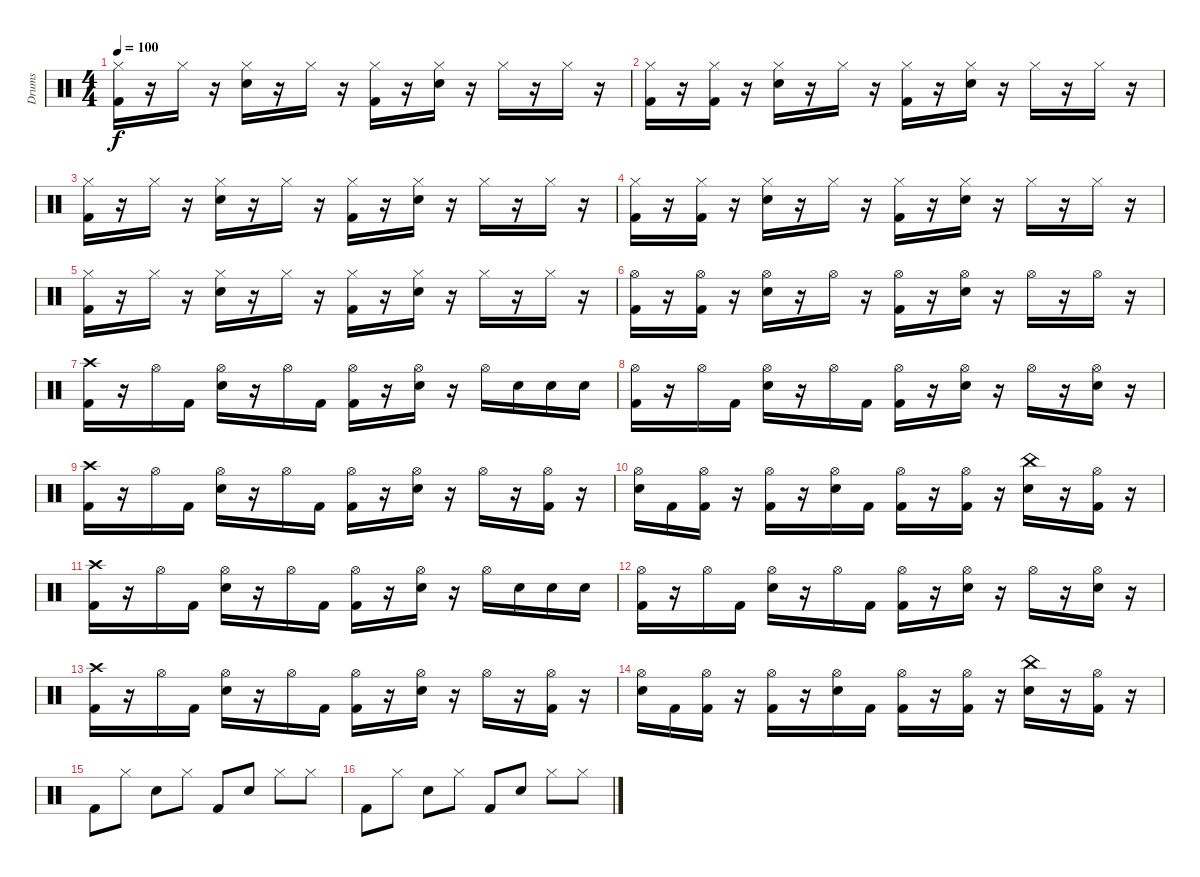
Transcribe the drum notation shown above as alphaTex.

\track ("Drums" "Drums") {instrument percussion}
\staff {score}
\articulation defaults
\ts (4 4)
\tempo 100
\clef neutral
\ks c
("Hi-Hat (closed)" "Kick (hit) 2").16{dy f} r.16 "Hi-Hat (closed)".16 r.16 ("Hi-Hat (closed)" "Hand Clap (hit)").16 r.16 "Hi-Hat (closed)".16 r.16 ("Hi-Hat (closed)" "Kick (hit) 2").16 r.16 ("Hi-Hat (closed)" "Hand Clap (hit)").16 r.16 "Hi-Hat (closed)".16 r.16 "Hi-Hat (closed)".16 r.16 |
("Hi-Hat (closed)" "Kick (hit) 2").16 r.16 ("Hi-Hat (closed)" "Kick (hit) 2").16 r.16 ("Hi-Hat (closed)" "Hand Clap (hit)").16 r.16 "Hi-Hat (closed)".16 r.16 ("Hi-Hat (closed)" "Kick (hit) 2").16 r.16 ("Hi-Hat (closed)" "Hand Clap (hit)").16 r.16 "Hi-Hat (closed)".16 r.16 "Hi-Hat (closed)".16 r.16 |
("Hi-Hat (closed)" "Kick (hit) 2").16 r.16 "Hi-Hat (closed)".16 r.16 ("Hi-Hat (closed)" "Hand Clap (hit)").16 r.16 "Hi-Hat (closed)".16 r.16 ("Hi-Hat (closed)" "Kick (hit) 2").16 r.16 ("Hi-Hat (closed)" "Hand Clap (hit)").16 r.16 "Hi-Hat (closed)".16 r.16 "Hi-Hat (closed)".16 r.16 |
("Hi-Hat (closed)" "Kick (hit) 2").16 r.16 ("Hi-Hat (closed)" "Kick (hit) 2").16 r.16 ("Hi-Hat (closed)" "Hand Clap (hit)").16 r.16 "Hi-Hat (closed)".16 r.16 ("Hi-Hat (closed)" "Kick (hit) 2").16 r.16 ("Hi-Hat (closed)" "Hand Clap (hit)").16 r.16 "Hi-Hat (closed)".16 r.16 "Hi-Hat (closed)".16 r.16 |
("Hi-Hat (closed)" "Kick (hit) 2").16 r.16 "Hi-Hat (closed)".16 r.16 ("Hi-Hat (closed)" "Hand Clap (hit)").16 r.16 "Hi-Hat (closed)".16 r.16 ("Hi-Hat (closed)" "Kick (hit) 2").16 r.16 ("Hi-Hat (closed)" "Hand Clap (hit)").16 r.16 "Hi-Hat (closed)".16 r.16 "Hi-Hat (closed)".16 r.16 |
("Hi-Hat (open)" "Kick (hit) 2").16 r.16 ("Hi-Hat (open)" "Kick (hit) 2").16 r.16 ("Hi-Hat (open)" "Hand Clap (hit)").16 r.16 "Hi-Hat (open)".16 r.16 ("Hi-Hat (open)" "Kick (hit) 2").16 r.16 ("Hi-Hat (open)" "Hand Clap (hit)").16 r.16 "Hi-Hat (open)".16 r.16 "Hi-Hat (open)".16 r.16 |
("Crash high (hit)" "Kick (hit) 2").16 r.16 "Hi-Hat (open)".16 "Kick (hit) 2".16 ("Hi-Hat (open)" "Electric Snare (hit)").16 r.16 "Hi-Hat (open)".16 "Kick (hit) 2".16 ("Hi-Hat (open)" "Kick (hit) 2").16 r.16 ("Hi-Hat (open)" "Electric Snare (hit)").16 r.16 "Hi-Hat (open)".16 "Electric Snare (hit)".16 "Electric Snare (hit)".16 "Electric Snare (hit)".16 |
("Hi-Hat (open)" "Kick (hit) 2").16 r.16 "Hi-Hat (open)".16 "Kick (hit) 2".16 ("Hi-Hat (open)" "Electric Snare (hit)").16 r.16 "Hi-Hat (open)".16 "Kick (hit) 2".16 ("Hi-Hat (open)" "Kick (hit) 2").16 r.16 ("Hi-Hat (open)" "Electric Snare (hit)").16 r.16 "Hi-Hat (open)".16 r.16 ("Hi-Hat (open)" "Electric Snare (hit)").16 r.16 |
("Crash high (hit)" "Kick (hit) 2").16 r.16 "Hi-Hat (open)".16 "Kick (hit) 2".16 ("Hi-Hat (open)" "Electric Snare (hit)").16 r.16 "Hi-Hat (open)".16 "Kick (hit) 2".16 ("Hi-Hat (open)" "Kick (hit) 2").16 r.16 ("Hi-Hat (open)" "Electric Snare (hit)").16 r.16 "Hi-Hat (open)".16 r.16 ("Hi-Hat (open)" "Kick (hit) 2").16 r.16 |
("Hi-Hat (open)" "Electric Snare (hit)").16 "Kick (hit) 2".16 ("Hi-Hat (open)" "Kick (hit) 2").16 r.16 ("Hi-Hat (open)" "Kick (hit) 2").16 r.16 ("Hi-Hat (open)" "Electric Snare (hit)").16 "Kick (hit) 2".16 ("Hi-Hat (open)" "Kick (hit) 2").16 r.16 ("Hi-Hat (open)" "Kick (hit) 2").16 r.16 ("China (hit)" "Electric Snare (hit)").16 r.16 ("Hi-Hat (open)" "Kick (hit) 2").16 r.16 |
("Crash high (hit)" "Kick (hit) 2").16 r.16 "Hi-Hat (open)".16 "Kick (hit) 2".16 ("Hi-Hat (open)" "Electric Snare (hit)").16 r.16 "Hi-Hat (open)".16 "Kick (hit) 2".16 ("Hi-Hat (open)" "Kick (hit) 2").16 r.16 ("Hi-Hat (open)" "Electric Snare (hit)").16 r.16 "Hi-Hat (open)".16 "Electric Snare (hit)".16 "Electric Snare (hit)".16 "Electric Snare (hit)".16 |
("Hi-Hat (open)" "Kick (hit) 2").16 r.16 "Hi-Hat (open)".16 "Kick (hit) 2".16 ("Hi-Hat (open)" "Electric Snare (hit)").16 r.16 "Hi-Hat (open)".16 "Kick (hit) 2".16 ("Hi-Hat (open)" "Kick (hit) 2").16 r.16 ("Hi-Hat (open)" "Electric Snare (hit)").16 r.16 "Hi-Hat (open)".16 r.16 ("Hi-Hat (open)" "Electric Snare (hit)").16 r.16 |
("Crash high (hit)" "Kick (hit) 2").16 r.16 "Hi-Hat (open)".16 "Kick (hit) 2".16 ("Hi-Hat (open)" "Electric Snare (hit)").16 r.16 "Hi-Hat (open)".16 "Kick (hit) 2".16 ("Hi-Hat (open)" "Kick (hit) 2").16 r.16 ("Hi-Hat (open)" "Electric Snare (hit)").16 r.16 "Hi-Hat (open)".16 r.16 ("Hi-Hat (open)" "Kick (hit) 2").16 r.16 |
("Hi-Hat (open)" "Electric Snare (hit)").16 "Kick (hit) 2".16 ("Hi-Hat (open)" "Kick (hit) 2").16 r.16 ("Hi-Hat (open)" "Kick (hit) 2").16 r.16 ("Hi-Hat (open)" "Electric Snare (hit)").16 "Kick (hit) 2".16 ("Hi-Hat (open)" "Kick (hit) 2").16 r.16 ("Hi-Hat (open)" "Kick (hit) 2").16 r.16 ("China (hit)" "Electric Snare (hit)").16 r.16 ("Hi-Hat (open)" "Kick (hit) 2").16 r.16 |
"Kick (hit) 2".8 "Hi-Hat (closed)".8 "Hand Clap (hit)".8 "Hi-Hat (closed)".8 "Kick (hit) 2".8 "Hand Clap (hit)".8 "Hi-Hat (closed)".8 "Hi-Hat (closed)".8 |
"Kick (hit) 2".8 "Hi-Hat (closed)".8 "Hand Clap (hit)".8 "Hi-Hat (closed)".8 "Kick (hit) 2".8 "Hand Clap (hit)".8 "Hi-Hat (closed)".8 "Hi-Hat (closed)".8
